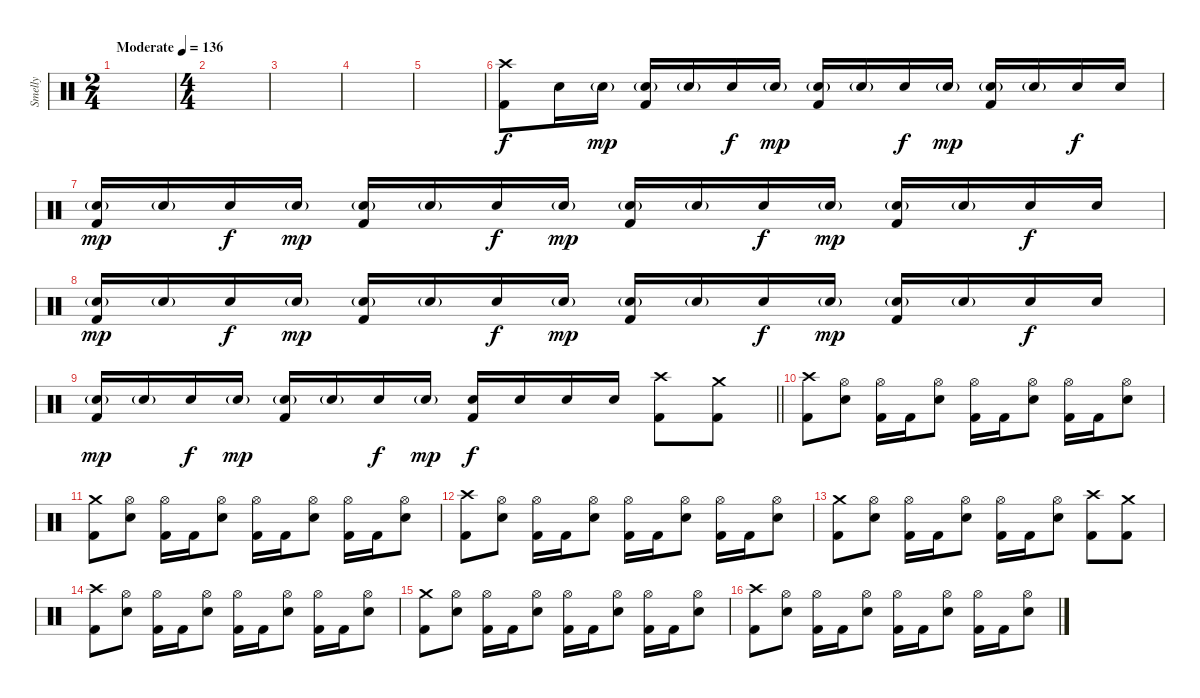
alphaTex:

\track ("Smelly" "Smelly") {instrument percussion}
\staff {score}
\articulation defaults
\ts (2 4)
\tempo (136 "Moderate")
\clef neutral
\ks c
|
\ts (4 4)
|
|
|
|
("Crash high (hit)" "Kick (hit) 2").8 "Electric Snare (hit)".16 "Electric Snare (hit)"{g}.16{dy mp} ("Electric Snare (hit)"{g} "Kick (hit) 2").16 "Electric Snare (hit)"{g}.16 "Electric Snare (hit)".16{dy f} "Electric Snare (hit)"{g}.16{dy mp} ("Electric Snare (hit)"{g} "Kick (hit) 2").16 "Electric Snare (hit)"{g}.16 "Electric Snare (hit)".16{dy f} "Electric Snare (hit)"{g}.16{dy mp} ("Electric Snare (hit)"{g} "Kick (hit) 2").16 "Electric Snare (hit)"{g}.16 "Electric Snare (hit)".16{dy f} "Electric Snare (hit)".16 |
("Electric Snare (hit)"{g} "Kick (hit) 2").16{dy mp} "Electric Snare (hit)"{g}.16 "Electric Snare (hit)".16{dy f} "Electric Snare (hit)"{g}.16{dy mp} ("Electric Snare (hit)"{g} "Kick (hit) 2").16 "Electric Snare (hit)"{g}.16 "Electric Snare (hit)".16{dy f} "Electric Snare (hit)"{g}.16{dy mp} ("Electric Snare (hit)"{g} "Kick (hit) 2").16 "Electric Snare (hit)"{g}.16 "Electric Snare (hit)".16{dy f} "Electric Snare (hit)"{g}.16{dy mp} ("Electric Snare (hit)"{g} "Kick (hit) 2").16 "Electric Snare (hit)"{g}.16 "Electric Snare (hit)".16{dy f} "Electric Snare (hit)".16 |
("Electric Snare (hit)"{g} "Kick (hit) 2").16{dy mp} "Electric Snare (hit)"{g}.16 "Electric Snare (hit)".16{dy f} "Electric Snare (hit)"{g}.16{dy mp} ("Electric Snare (hit)"{g} "Kick (hit) 2").16 "Electric Snare (hit)"{g}.16 "Electric Snare (hit)".16{dy f} "Electric Snare (hit)"{g}.16{dy mp} ("Electric Snare (hit)"{g} "Kick (hit) 2").16 "Electric Snare (hit)"{g}.16 "Electric Snare (hit)".16{dy f} "Electric Snare (hit)"{g}.16{dy mp} ("Electric Snare (hit)"{g} "Kick (hit) 2").16 "Electric Snare (hit)"{g}.16 "Electric Snare (hit)".16{dy f} "Electric Snare (hit)".16 |
\barLineRight lightlight
("Electric Snare (hit)"{g} "Kick (hit) 2").16{dy mp} "Electric Snare (hit)"{g}.16 "Electric Snare (hit)".16{dy f} "Electric Snare (hit)"{g}.16{dy mp} ("Electric Snare (hit)"{g} "Kick (hit) 2").16 "Electric Snare (hit)"{g}.16 "Electric Snare (hit)".16{dy f} "Electric Snare (hit)"{g}.16{dy mp} ("Electric Snare (hit)" "Kick (hit) 2").16{dy f} "Electric Snare (hit)".16 "Electric Snare (hit)".16 "Electric Snare (hit)".16 ("Crash high (hit)" "Kick (hit) 2").8 ("Crash medium (hit)" "Kick (hit) 2").8 |
\section ("" "")
("Crash high (hit)" "Kick (hit) 2").8 ("Hi-Hat (open)" "Electric Snare (hit)").8 ("Hi-Hat (open)" "Kick (hit) 2").16 "Kick (hit) 2".16 ("Hi-Hat (open)" "Electric Snare (hit)").8 ("Hi-Hat (open)" "Kick (hit) 2").16 "Kick (hit) 2".16 ("Hi-Hat (open)" "Electric Snare (hit)").8 ("Hi-Hat (open)" "Kick (hit) 2").16 "Kick (hit) 2".16 ("Hi-Hat (open)" "Electric Snare (hit)").8 |
("Crash medium (hit)" "Kick (hit) 2").8 ("Hi-Hat (open)" "Electric Snare (hit)").8 ("Hi-Hat (open)" "Kick (hit) 2").16 "Kick (hit) 2".16 ("Hi-Hat (open)" "Electric Snare (hit)").8 ("Hi-Hat (open)" "Kick (hit) 2").16 "Kick (hit) 2".16 ("Hi-Hat (open)" "Electric Snare (hit)").8 ("Hi-Hat (open)" "Kick (hit) 2").16 "Kick (hit) 2".16 ("Hi-Hat (open)" "Electric Snare (hit)").8 |
("Crash high (hit)" "Kick (hit) 2").8 ("Hi-Hat (open)" "Electric Snare (hit)").8 ("Hi-Hat (open)" "Kick (hit) 2").16 "Kick (hit) 2".16 ("Hi-Hat (open)" "Electric Snare (hit)").8 ("Hi-Hat (open)" "Kick (hit) 2").16 "Kick (hit) 2".16 ("Hi-Hat (open)" "Electric Snare (hit)").8 ("Hi-Hat (open)" "Kick (hit) 2").16 "Kick (hit) 2".16 ("Hi-Hat (open)" "Electric Snare (hit)").8 |
("Crash medium (hit)" "Kick (hit) 2").8 ("Hi-Hat (open)" "Electric Snare (hit)").8 ("Hi-Hat (open)" "Kick (hit) 2").16 "Kick (hit) 2".16 ("Hi-Hat (open)" "Electric Snare (hit)").8 ("Hi-Hat (open)" "Kick (hit) 2").16 "Kick (hit) 2".16 ("Hi-Hat (open)" "Electric Snare (hit)").8 ("Crash high (hit)" "Kick (hit) 2").8 ("Crash medium (hit)" "Kick (hit) 2").8 |
("Crash high (hit)" "Kick (hit) 2").8 ("Hi-Hat (open)" "Electric Snare (hit)").8 ("Hi-Hat (open)" "Kick (hit) 2").16 "Kick (hit) 2".16 ("Hi-Hat (open)" "Electric Snare (hit)").8 ("Hi-Hat (open)" "Kick (hit) 2").16 "Kick (hit) 2".16 ("Hi-Hat (open)" "Electric Snare (hit)").8 ("Hi-Hat (open)" "Kick (hit) 2").16 "Kick (hit) 2".16 ("Hi-Hat (open)" "Electric Snare (hit)").8 |
("Crash medium (hit)" "Kick (hit) 2").8 ("Hi-Hat (open)" "Electric Snare (hit)").8 ("Hi-Hat (open)" "Kick (hit) 2").16 "Kick (hit) 2".16 ("Hi-Hat (open)" "Electric Snare (hit)").8 ("Hi-Hat (open)" "Kick (hit) 2").16 "Kick (hit) 2".16 ("Hi-Hat (open)" "Electric Snare (hit)").8 ("Hi-Hat (open)" "Kick (hit) 2").16 "Kick (hit) 2".16 ("Hi-Hat (open)" "Electric Snare (hit)").8 |
("Crash high (hit)" "Kick (hit) 2").8 ("Hi-Hat (open)" "Electric Snare (hit)").8 ("Hi-Hat (open)" "Kick (hit) 2").16 "Kick (hit) 2".16 ("Hi-Hat (open)" "Electric Snare (hit)").8 ("Hi-Hat (open)" "Kick (hit) 2").16 "Kick (hit) 2".16 ("Hi-Hat (open)" "Electric Snare (hit)").8 ("Hi-Hat (open)" "Kick (hit) 2").16 "Kick (hit) 2".16 ("Hi-Hat (open)" "Electric Snare (hit)").8
